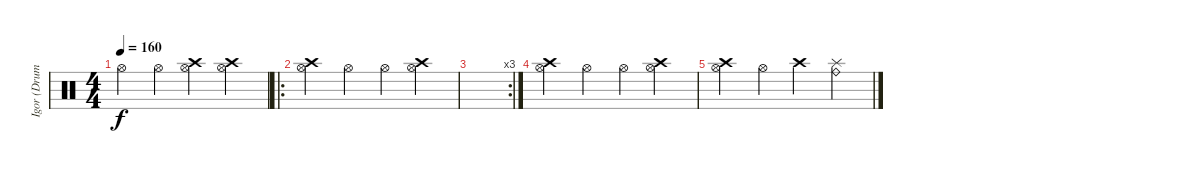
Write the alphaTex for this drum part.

\track ("Igor (Drum - Char & Cymb)" "Igor (Drum") {instrument percussion}
\staff {score}
\articulation defaults
\ts (4 4)
\tempo 160
\clef neutral
\ks c "Hi-Hat (open)".4{dy f} "Hi-Hat (open)".4
("Crash high (hit)" "Hi-Hat (open)").4 ("Crash high (hit)" "Hi-Hat (open)").4 |
\ro
("Crash high (hit)" "Hi-Hat (open)").4 "Hi-Hat (open)".4 "Hi-Hat (open)".4 ("Crash high (hit)" "Hi-Hat (open)").4 |
\rc 3
|
("Crash high (hit)" "Hi-Hat (open)").4 "Hi-Hat (open)".4 "Hi-Hat (open)".4 ("Crash high (hit)" "Hi-Hat (open)").4 |
("Hi-Hat (open)" "Crash high (hit)").4 "Hi-Hat (open)".4 "Crash high (hit)".4 ("Ride (bell)" "Splash (hit)").4
